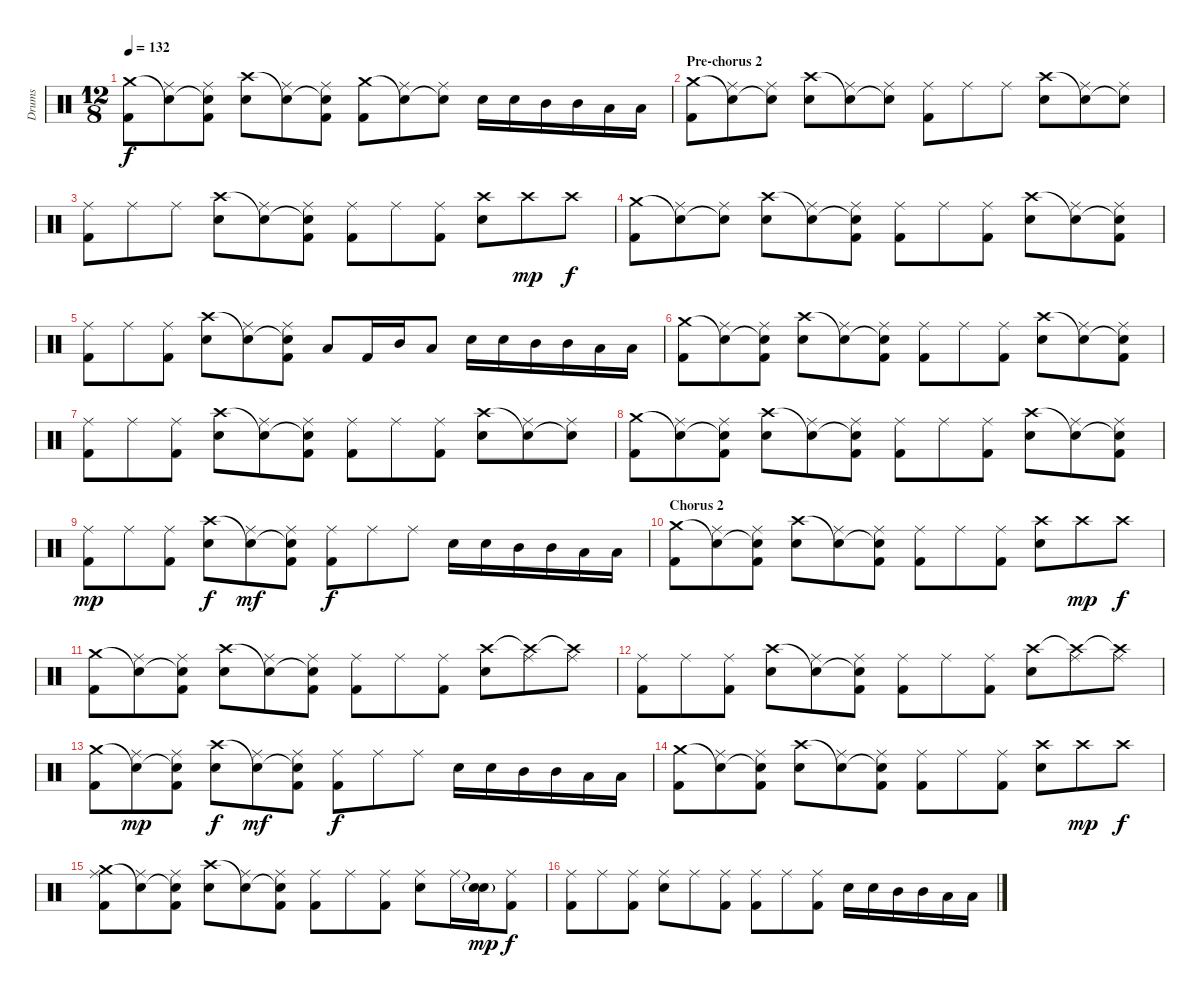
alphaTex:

\track ("Drums" "Drums") {instrument percussion}
\staff {score}
\articulation defaults
\ts (12 8)
\tempo 132
\clef neutral
\ks c
("Crash medium (hit)" "Kick (hit) 2").8{dy f} ("Snare (hit)"{t} "Ride (middle)").8 ("Snare (hit)"{t} "Ride (middle)" "Kick (hit) 2").8 ("Crash high (hit)" "Electric Snare (hit)").8 ("Snare (hit)"{t} "Ride (middle)").8 ("Snare (hit)"{t} "Ride (middle)" "Kick (hit) 2").8 ("Crash medium (hit)" "Kick (hit) 2").8 ("Snare (hit)"{t} "Ride (middle)").8 ("Snare (hit)"{t} "Ride (middle)").8 "Electric Snare (hit)".16 "Electric Snare (hit)".16 "Mid Tom (hit)".16 "Mid Tom (hit)".16 "Low Tom (hit)".16 "Low Tom (hit)".16 |
\section ("" "Pre-chorus 2")
("Crash medium (hit)" "Kick (hit) 2").8 ("Snare (hit)"{t} "Ride (middle)").8 ("Snare (hit)"{t} "Ride (middle)").8 ("Crash high (hit)" "Electric Snare (hit)").8 ("Snare (hit)"{t} "Ride (middle)").8 ("Snare (hit)"{t} "Ride (middle)").8 ("Ride (middle)" "Kick (hit) 2").8 "Ride (middle)".8 "Ride (middle)".8 ("Crash high (hit)" "Electric Snare (hit)").8 ("Snare (hit)"{t} "Ride (middle)").8 ("Snare (hit)"{t} "Ride (middle)").8 |
("Ride (middle)" "Kick (hit) 2").8 "Ride (middle)".8 "Ride (middle)".8 ("Crash high (hit)" "Electric Snare (hit)").8 ("Snare (hit)"{t} "Ride (middle)").8 ("Snare (hit)"{t} "Ride (middle)" "Kick (hit) 2").8 ("Ride (middle)" "Kick (hit) 2").8 "Ride (middle)".8 ("Ride (middle)" "Kick (hit) 2").8 ("Crash high (hit)" "Electric Snare (hit)").8 "Crash high (hit)".8{dy mp} "Crash high (hit)".8{dy f} |
("Crash medium (hit)" "Kick (hit) 2").8 ("Snare (hit)"{t} "Ride (middle)").8 ("Snare (hit)"{t} "Ride (middle)").8 ("Crash high (hit)" "Electric Snare (hit)").8 ("Snare (hit)"{t} "Ride (middle)").8 ("Snare (hit)"{t} "Ride (middle)" "Kick (hit) 2").8 ("Ride (middle)" "Kick (hit) 2").8 "Ride (middle)".8 ("Ride (middle)" "Kick (hit) 2").8 ("Crash high (hit)" "Electric Snare (hit)").8 ("Snare (hit)"{t} "Ride (middle)").8 ("Snare (hit)"{t} "Ride (middle)" "Kick (hit) 2").8 |
("Ride (middle)" "Kick (hit) 2").8 "Ride (middle)".8 ("Ride (middle)" "Kick (hit) 2").8 ("Crash high (hit)" "Electric Snare (hit)").8 ("Snare (hit)"{t} "Ride (middle)").8 ("Snare (hit)"{t} "Ride (middle)" "Kick (hit) 2").8 "Low Tom (hit)".8 "Kick (hit) 2".16 "Mid Tom (hit)".16 "Low Tom (hit)".8 "Electric Snare (hit)".16 "Electric Snare (hit)".16 "Mid Tom (hit)".16 "Mid Tom (hit)".16 "Low Tom (hit)".16 "Low Tom (hit)".16 |
("Crash medium (hit)" "Kick (hit) 2").8 ("Snare (hit)"{t} "Ride (middle)").8 ("Snare (hit)"{t} "Ride (middle)" "Kick (hit) 2").8 ("Crash high (hit)" "Electric Snare (hit)").8 ("Snare (hit)"{t} "Ride (middle)").8 ("Snare (hit)"{t} "Ride (middle)" "Kick (hit) 2").8 ("Ride (middle)" "Kick (hit) 2").8 "Ride (middle)".8 ("Ride (middle)" "Kick (hit) 2").8 ("Crash high (hit)" "Electric Snare (hit)").8 ("Snare (hit)"{t} "Ride (middle)").8 ("Snare (hit)"{t} "Ride (middle)" "Kick (hit) 2").8 |
("Ride (middle)" "Kick (hit) 2").8 "Ride (middle)".8 ("Ride (middle)" "Kick (hit) 2").8 ("Crash high (hit)" "Electric Snare (hit)").8 ("Snare (hit)"{t} "Ride (middle)").8 ("Snare (hit)"{t} "Ride (middle)" "Kick (hit) 2").8 ("Ride (middle)" "Kick (hit) 2").8 "Ride (middle)".8 ("Ride (middle)" "Kick (hit) 2").8 ("Crash high (hit)" "Electric Snare (hit)").8 ("Snare (hit)"{t} "Ride (middle)").8 ("Snare (hit)"{t} "Ride (middle)").8 |
("Crash medium (hit)" "Kick (hit) 2").8 ("Snare (hit)"{t} "Ride (middle)").8 ("Snare (hit)"{t} "Ride (middle)" "Kick (hit) 2").8 ("Crash high (hit)" "Electric Snare (hit)").8 ("Snare (hit)"{t} "Ride (middle)").8 ("Snare (hit)"{t} "Ride (middle)" "Kick (hit) 2").8 ("Ride (middle)" "Kick (hit) 2").8 "Ride (middle)".8 ("Ride (middle)" "Kick (hit) 2").8 ("Crash high (hit)" "Electric Snare (hit)").8 ("Snare (hit)"{t} "Ride (middle)").8 ("Snare (hit)"{t} "Ride (middle)" "Kick (hit) 2").8 |
("Ride (middle)" "Kick (hit) 2").8{dy mp} "Ride (middle)".8 ("Ride (middle)" "Kick (hit) 2").8 ("Crash high (hit)" "Electric Snare (hit)").8{dy f} ("Snare (hit)"{t} "Ride (middle)").8{dy mf} ("Snare (hit)"{t} "Ride (middle)" "Kick (hit) 2").8 ("Ride (middle)" "Kick (hit) 2").8{dy f} "Ride (middle)".8 "Ride (middle)".8 "Electric Snare (hit)".16 "Electric Snare (hit)".16 "Mid Tom (hit)".16 "Mid Tom (hit)".16 "Low Tom (hit)".16 "Low Tom (hit)".16 |
\section ("" "Chorus 2")
("Crash medium (hit)" "Kick (hit) 2").8 ("Snare (hit)"{t} "Ride (middle)").8 ("Snare (hit)"{t} "Ride (middle)" "Kick (hit) 2").8 ("Crash high (hit)" "Electric Snare (hit)").8 ("Snare (hit)"{t} "Ride (middle)").8 ("Snare (hit)"{t} "Ride (middle)" "Kick (hit) 2").8 ("Ride (middle)" "Kick (hit) 2").8 "Ride (middle)".8 ("Ride (middle)" "Kick (hit) 2").8 ("Crash high (hit)" "Electric Snare (hit)").8 "Crash high (hit)".8{dy mp} "Crash high (hit)".8{dy f} |
("Crash medium (hit)" "Kick (hit) 2").8 ("Snare (hit)"{t} "Ride (middle)").8 ("Snare (hit)"{t} "Ride (middle)" "Kick (hit) 2").8 ("Crash high (hit)" "Electric Snare (hit)").8 ("Snare (hit)"{t} "Ride (middle)").8 ("Snare (hit)"{t} "Ride (middle)" "Kick (hit) 2").8 ("Ride (middle)" "Kick (hit) 2").8 "Ride (middle)".8 ("Ride (middle)" "Kick (hit) 2").8 ("Crash high (hit)" "Electric Snare (hit)").8 ("Crash high (hit)"{t} "Ride (middle)").8 ("Crash high (hit)"{t} "Ride (middle)").8 |
("Ride (middle)" "Kick (hit) 2").8 "Ride (middle)".8 ("Ride (middle)" "Kick (hit) 2").8 ("Crash high (hit)" "Electric Snare (hit)").8 ("Snare (hit)"{t} "Ride (middle)").8 ("Snare (hit)"{t} "Ride (middle)" "Kick (hit) 2").8 ("Ride (middle)" "Kick (hit) 2").8 "Ride (middle)".8 ("Ride (middle)" "Kick (hit) 2").8 ("Crash high (hit)" "Electric Snare (hit)").8 ("Crash high (hit)"{t} "Ride (middle)").8 ("Crash high (hit)"{t} "Ride (middle)").8 |
("Crash medium (hit)" "Kick (hit) 2").8 ("Snare (hit)"{t} "Ride (middle)").8{dy mp} ("Snare (hit)"{t} "Ride (middle)" "Kick (hit) 2").8 ("Crash high (hit)" "Electric Snare (hit)").8{dy f} ("Snare (hit)"{t} "Ride (middle)").8{dy mf} ("Snare (hit)"{t} "Ride (middle)" "Kick (hit) 2").8 ("Ride (middle)" "Kick (hit) 2").8{dy f} "Ride (middle)".8 "Ride (middle)".8 "Electric Snare (hit)".16 "Electric Snare (hit)".16 "Mid Tom (hit)".16 "Mid Tom (hit)".16 "Low Tom (hit)".16 "Low Tom (hit)".16 |
("Crash medium (hit)" "Kick (hit) 2").8 ("Snare (hit)"{t} "Ride (middle)").8 ("Snare (hit)"{t} "Ride (middle)" "Kick (hit) 2").8 ("Crash high (hit)" "Electric Snare (hit)").8 ("Snare (hit)"{t} "Ride (middle)").8 ("Snare (hit)"{t} "Ride (middle)" "Kick (hit) 2").8 ("Ride (middle)" "Kick (hit) 2").8 "Ride (middle)".8 ("Ride (middle)" "Kick (hit) 2").8 ("Crash high (hit)" "Electric Snare (hit)").8 "Crash high (hit)".8{dy mp} "Crash high (hit)".8{dy f} |
("Crash medium (hit)" "Ride (middle)" "Kick (hit) 2").8 ("Snare (hit)"{t} "Ride (middle)").8 ("Snare (hit)"{t} "Ride (middle)" "Kick (hit) 2").8 ("Crash high (hit)" "Electric Snare (hit)").8 ("Snare (hit)"{t} "Ride (middle)").8 ("Snare (hit)"{t} "Ride (middle)" "Kick (hit) 2").8 ("Ride (middle)" "Kick (hit) 2").8 "Ride (middle)".8 ("Ride (middle)" "Kick (hit) 2").8 ("Ride (middle)" "Electric Snare (hit)").8 "Ride (middle)".16 ("Snare (hit)"{t} "Electric Snare (hit)"{g}).16{dy mp} ("Ride (middle)" "Kick (hit) 2").8{dy f} |
("Ride (middle)" "Kick (hit) 2").8 "Ride (middle)".8 ("Ride (middle)" "Kick (hit) 2").8 ("Ride (middle)" "Electric Snare (hit)").8 "Ride (middle)".8 ("Ride (middle)" "Kick (hit) 2").8 ("Ride (middle)" "Kick (hit) 2").8 "Ride (middle)".8 ("Ride (middle)" "Kick (hit) 2").8 "Electric Snare (hit)".16 "Electric Snare (hit)".16 "Mid Tom (hit)".16 "Mid Tom (hit)".16 "Low Tom (hit)".16 "Low Tom (hit)".16
